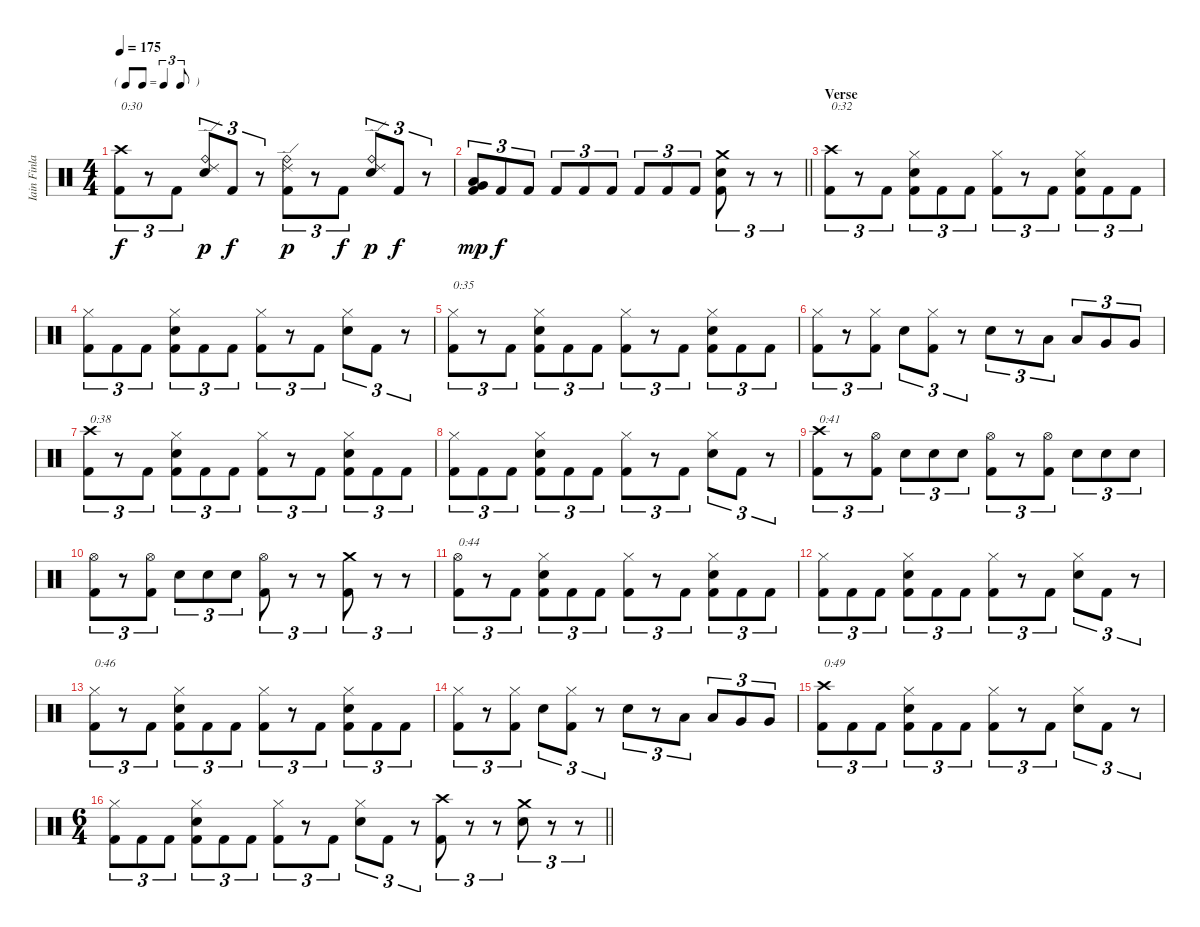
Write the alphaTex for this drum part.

\track ("Iain Finlay" "Iain Finla") {instrument percussion}
\staff {score}
\articulation defaults
\ts (4 4)
\tf triplet8th
\tempo 175
\clef neutral
\ks c
("Crash high (hit)" "Kick (hit) 2").8{tu (3 2) txt "0:30" dy f} r.8{tu (3 2)} "Kick (hit) 2".8{tu (3 2)} ("Ride (edge) 2" "Ride (bell)" "Electric Snare (hit)").8{tu (3 2) dy p} "Kick (hit) 2".8{tu (3 2) dy f} r.8{tu (3 2)} ("Ride (edge) 2" "Ride (bell)" "Kick (hit) 2").8{tu (3 2) dy p} r.8{tu (3 2)} "Kick (hit) 2".8{tu (3 2) dy f} ("Ride (edge) 2" "Ride (bell)" "Electric Snare (hit)").8{tu (3 2) dy p} "Kick (hit) 2".8{tu (3 2) dy f} r.8{tu (3 2)} |
\barLineRight lightlight
("Very Low Tom (hit)" "Low Floor Tom (hit)" "Kick (hit) 2").8{tu (3 2) dy mp} "Kick (hit) 2".8{tu (3 2) dy f} "Kick (hit) 2".8{tu (3 2)} "Kick (hit) 2".8{tu (3 2)} "Kick (hit) 2".8{tu (3 2)} "Kick (hit) 2".8{tu (3 2)} "Kick (hit) 2".8{tu (3 2)} "Kick (hit) 2".8{tu (3 2)} "Kick (hit) 2".8{tu (3 2)} ("Crash medium (hit)" "Electric Snare (hit)" "Kick (hit) 2").8{tu (3 2)} r.8{tu (3 2)} r.8{tu (3 2)} |
\section ("" "Verse")
("Crash high (hit)" "Kick (hit) 2").8{tu (3 2) txt "0:32"} r.8{tu (3 2)} "Kick (hit) 2".8{tu (3 2)} ("Hi-Hat (closed)" "Electric Snare (hit)" "Kick (hit) 2").8{tu (3 2)} "Kick (hit) 2".8{tu (3 2)} "Kick (hit) 2".8{tu (3 2)} ("Hi-Hat (closed)" "Kick (hit) 2").8{tu (3 2)} r.8{tu (3 2)} "Kick (hit) 2".8{tu (3 2)} ("Hi-Hat (closed)" "Electric Snare (hit)" "Kick (hit) 2").8{tu (3 2)} "Kick (hit) 2".8{tu (3 2)} "Kick (hit) 2".8{tu (3 2)} |
("Hi-Hat (closed)" "Kick (hit) 2").8{tu (3 2)} "Kick (hit) 2".8{tu (3 2)} "Kick (hit) 2".8{tu (3 2)} ("Hi-Hat (closed)" "Electric Snare (hit)" "Kick (hit) 2").8{tu (3 2)} "Kick (hit) 2".8{tu (3 2)} "Kick (hit) 2".8{tu (3 2)} ("Hi-Hat (closed)" "Kick (hit) 2").8{tu (3 2)} r.8{tu (3 2)} "Kick (hit) 2".8{tu (3 2)} ("Hi-Hat (closed)" "Electric Snare (hit)").8{tu (3 2)} "Kick (hit) 2".8{tu (3 2)} r.8{tu (3 2)} |
("Hi-Hat (closed)" "Kick (hit) 2").8{tu (3 2) txt "0:35"} r.8{tu (3 2)} "Kick (hit) 2".8{tu (3 2)} ("Hi-Hat (closed)" "Electric Snare (hit)" "Kick (hit) 2").8{tu (3 2)} "Kick (hit) 2".8{tu (3 2)} "Kick (hit) 2".8{tu (3 2)} ("Hi-Hat (closed)" "Kick (hit) 2").8{tu (3 2)} r.8{tu (3 2)} "Kick (hit) 2".8{tu (3 2)} ("Hi-Hat (closed)" "Electric Snare (hit)" "Kick (hit) 2").8{tu (3 2)} "Kick (hit) 2".8{tu (3 2)} "Kick (hit) 2".8{tu (3 2)} |
("Hi-Hat (closed)" "Kick (hit) 2").8{tu (3 2)} r.8{tu (3 2)} ("Hi-Hat (closed)" "Kick (hit) 2").8{tu (3 2)} "Electric Snare (hit)".8{tu (3 2)} ("Hi-Hat (closed)" "Kick (hit) 2").8{tu (3 2)} r.8{tu (3 2)} "Electric Snare (hit)".8{tu (3 2)} r.8{tu (3 2)} "Low Tom (hit)".8{tu (3 2)} "Low Tom (hit)".8{tu (3 2)} "Very Low Tom (hit)".8{tu (3 2)} "Very Low Tom (hit)".8{tu (3 2)} |
("Crash high (hit)" "Kick (hit) 2").8{tu (3 2) txt "0:38"} r.8{tu (3 2)} "Kick (hit) 2".8{tu (3 2)} ("Hi-Hat (closed)" "Electric Snare (hit)" "Kick (hit) 2").8{tu (3 2)} "Kick (hit) 2".8{tu (3 2)} "Kick (hit) 2".8{tu (3 2)} ("Hi-Hat (closed)" "Kick (hit) 2").8{tu (3 2)} r.8{tu (3 2)} "Kick (hit) 2".8{tu (3 2)} ("Hi-Hat (closed)" "Electric Snare (hit)" "Kick (hit) 2").8{tu (3 2)} "Kick (hit) 2".8{tu (3 2)} "Kick (hit) 2".8{tu (3 2)} |
("Hi-Hat (closed)" "Kick (hit) 2").8{tu (3 2)} "Kick (hit) 2".8{tu (3 2)} "Kick (hit) 2".8{tu (3 2)} ("Hi-Hat (closed)" "Electric Snare (hit)" "Kick (hit) 2").8{tu (3 2)} "Kick (hit) 2".8{tu (3 2)} "Kick (hit) 2".8{tu (3 2)} ("Hi-Hat (closed)" "Kick (hit) 2").8{tu (3 2)} r.8{tu (3 2)} "Kick (hit) 2".8{tu (3 2)} ("Hi-Hat (closed)" "Electric Snare (hit)").8{tu (3 2)} "Kick (hit) 2".8{tu (3 2)} r.8{tu (3 2)} |
("Crash high (hit)" "Kick (hit) 2").8{tu (3 2) txt "0:41"} r.8{tu (3 2)} ("Hi-Hat (open)" "Kick (hit) 2").8{tu (3 2)} "Electric Snare (hit)".8{tu (3 2)} "Electric Snare (hit)".8{tu (3 2)} "Electric Snare (hit)".8{tu (3 2)} ("Hi-Hat (open)" "Kick (hit) 2").8{tu (3 2)} r.8{tu (3 2)} ("Hi-Hat (open)" "Kick (hit) 2").8{tu (3 2)} "Electric Snare (hit)".8{tu (3 2)} "Electric Snare (hit)".8{tu (3 2)} "Electric Snare (hit)".8{tu (3 2)} |
("Hi-Hat (open)" "Kick (hit) 2").8{tu (3 2)} r.8{tu (3 2)} ("Hi-Hat (open)" "Kick (hit) 2").8{tu (3 2)} "Electric Snare (hit)".8{tu (3 2)} "Electric Snare (hit)".8{tu (3 2)} "Electric Snare (hit)".8{tu (3 2)} ("Hi-Hat (open)" "Kick (hit) 2").8{tu (3 2)} r.8{tu (3 2)} r.8{tu (3 2)} ("Crash medium (hit)" "Kick (hit) 2").8{tu (3 2)} r.8{tu (3 2)} r.8{tu (3 2)} |
("Hi-Hat (open)" "Kick (hit) 2").8{tu (3 2) txt "0:44"} r.8{tu (3 2)} "Kick (hit) 2".8{tu (3 2)} ("Hi-Hat (closed)" "Electric Snare (hit)" "Kick (hit) 2").8{tu (3 2)} "Kick (hit) 2".8{tu (3 2)} "Kick (hit) 2".8{tu (3 2)} ("Hi-Hat (closed)" "Kick (hit) 2").8{tu (3 2)} r.8{tu (3 2)} "Kick (hit) 2".8{tu (3 2)} ("Hi-Hat (closed)" "Electric Snare (hit)" "Kick (hit) 2").8{tu (3 2)} "Kick (hit) 2".8{tu (3 2)} "Kick (hit) 2".8{tu (3 2)} |
("Hi-Hat (closed)" "Kick (hit) 2").8{tu (3 2)} "Kick (hit) 2".8{tu (3 2)} "Kick (hit) 2".8{tu (3 2)} ("Hi-Hat (closed)" "Electric Snare (hit)" "Kick (hit) 2").8{tu (3 2)} "Kick (hit) 2".8{tu (3 2)} "Kick (hit) 2".8{tu (3 2)} ("Hi-Hat (closed)" "Kick (hit) 2").8{tu (3 2)} r.8{tu (3 2)} "Kick (hit) 2".8{tu (3 2)} ("Hi-Hat (closed)" "Electric Snare (hit)").8{tu (3 2)} "Kick (hit) 2".8{tu (3 2)} r.8{tu (3 2)} |
("Hi-Hat (closed)" "Kick (hit) 2").8{tu (3 2) txt "0:46"} r.8{tu (3 2)} "Kick (hit) 2".8{tu (3 2)} ("Hi-Hat (closed)" "Electric Snare (hit)" "Kick (hit) 2").8{tu (3 2)} "Kick (hit) 2".8{tu (3 2)} "Kick (hit) 2".8{tu (3 2)} ("Hi-Hat (closed)" "Kick (hit) 2").8{tu (3 2)} r.8{tu (3 2)} "Kick (hit) 2".8{tu (3 2)} ("Hi-Hat (closed)" "Electric Snare (hit)" "Kick (hit) 2").8{tu (3 2)} "Kick (hit) 2".8{tu (3 2)} "Kick (hit) 2".8{tu (3 2)} |
("Hi-Hat (closed)" "Kick (hit) 2").8{tu (3 2)} r.8{tu (3 2)} ("Hi-Hat (closed)" "Kick (hit) 2").8{tu (3 2)} "Electric Snare (hit)".8{tu (3 2)} ("Hi-Hat (closed)" "Kick (hit) 2").8{tu (3 2)} r.8{tu (3 2)} "Electric Snare (hit)".8{tu (3 2)} r.8{tu (3 2)} "Low Tom (hit)".8{tu (3 2)} "Low Tom (hit)".8{tu (3 2)} "Very Low Tom (hit)".8{tu (3 2)} "Very Low Tom (hit)".8{tu (3 2)} |
("Crash high (hit)" "Kick (hit) 2").8{tu (3 2) txt "0:49"} "Kick (hit) 2".8{tu (3 2)} "Kick (hit) 2".8{tu (3 2)} ("Hi-Hat (closed)" "Electric Snare (hit)" "Kick (hit) 2").8{tu (3 2)} "Kick (hit) 2".8{tu (3 2)} "Kick (hit) 2".8{tu (3 2)} ("Hi-Hat (closed)" "Kick (hit) 2").8{tu (3 2)} r.8{tu (3 2)} "Kick (hit) 2".8{tu (3 2)} ("Hi-Hat (closed)" "Electric Snare (hit)").8{tu (3 2)} "Kick (hit) 2".8{tu (3 2)} r.8{tu (3 2)} |
\ts (6 4)
\barLineRight lightlight
("Hi-Hat (closed)" "Kick (hit) 2").8{tu (3 2)} "Kick (hit) 2".8{tu (3 2)} "Kick (hit) 2".8{tu (3 2)} ("Hi-Hat (closed)" "Electric Snare (hit)" "Kick (hit) 2").8{tu (3 2)} "Kick (hit) 2".8{tu (3 2)} "Kick (hit) 2".8{tu (3 2)} ("Hi-Hat (closed)" "Kick (hit) 2").8{tu (3 2)} r.8{tu (3 2)} "Kick (hit) 2".8{tu (3 2)} ("Hi-Hat (closed)" "Electric Snare (hit)").8{tu (3 2)} "Kick (hit) 2".8{tu (3 2)} r.8{tu (3 2)} ("Crash high (hit)" "Kick (hit) 2").8{tu (3 2)} r.8{tu (3 2)} r.8{tu (3 2)} ("Crash medium (hit)" "Electric Snare (hit)").8{tu (3 2)} r.8{tu (3 2)} r.8{tu (3 2)}
